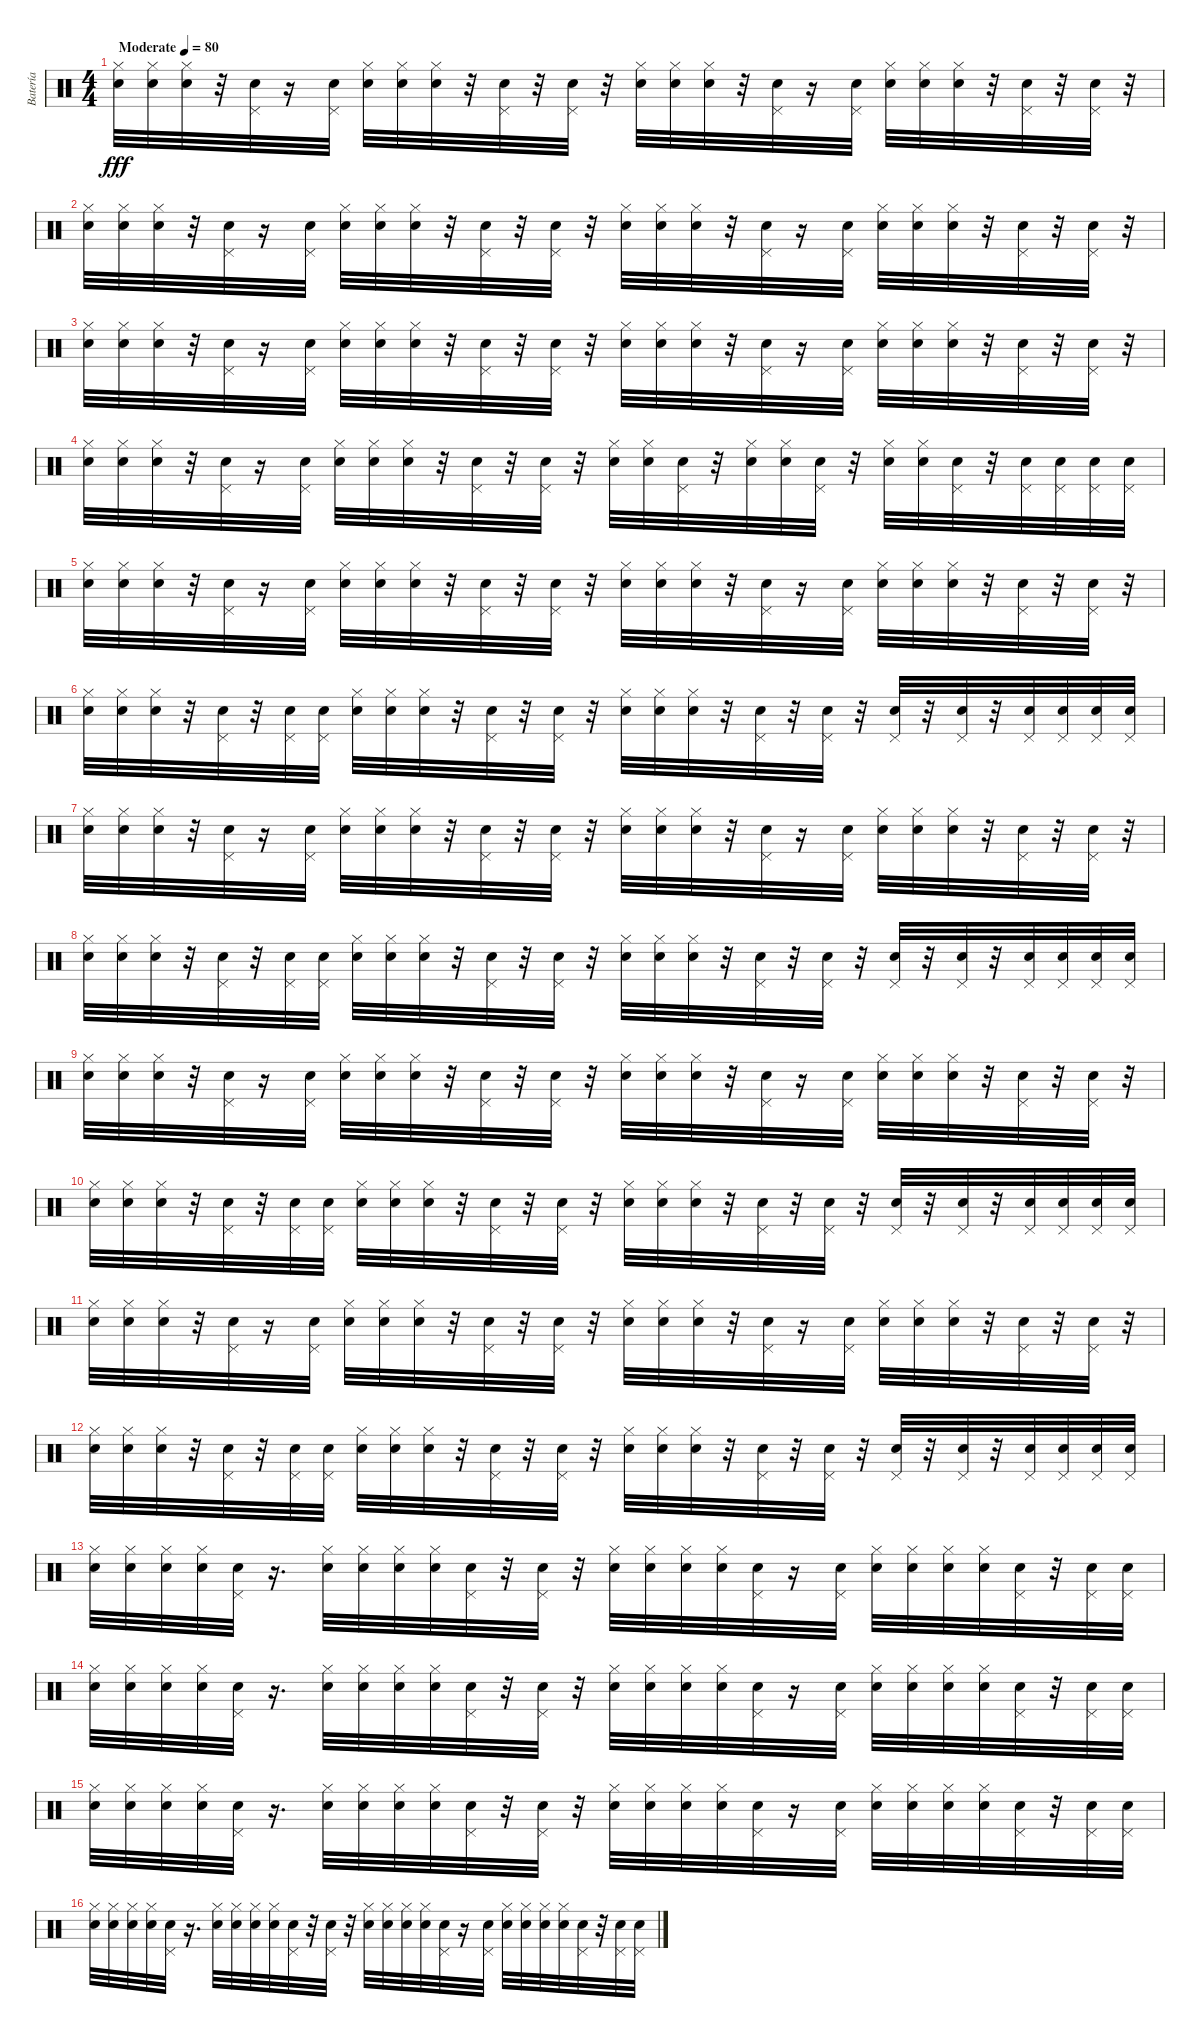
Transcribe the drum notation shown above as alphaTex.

\track ("Batería" "Batería") {instrument percussion}
\staff {score}
\articulation defaults
\ts (4 4)
\tempo (80 "Moderate")
\clef neutral
\ks c
("Hi-Hat (closed)" "Snare (hit) 2").32{dy fff} ("Hi-Hat (closed)" "Snare (hit) 2").32 ("Hi-Hat (closed)" "Snare (hit) 2").32 r.32 ("Pedal Hi-Hat (hit)" "Electric Snare (hit)").32 r.16 ("Pedal Hi-Hat (hit)" "Electric Snare (hit)").32 ("Hi-Hat (closed)" "Snare (hit) 2").32 ("Hi-Hat (closed)" "Snare (hit) 2").32 ("Hi-Hat (closed)" "Snare (hit) 2").32 r.32 ("Pedal Hi-Hat (hit)" "Electric Snare (hit)").32 r.32 ("Pedal Hi-Hat (hit)" "Electric Snare (hit)").32 r.32 ("Hi-Hat (closed)" "Snare (hit) 2").32 ("Hi-Hat (closed)" "Snare (hit) 2").32 ("Hi-Hat (closed)" "Snare (hit) 2").32 r.32 ("Pedal Hi-Hat (hit)" "Electric Snare (hit)").32 r.16 ("Pedal Hi-Hat (hit)" "Electric Snare (hit)").32 ("Hi-Hat (closed)" "Snare (hit) 2").32 ("Hi-Hat (closed)" "Snare (hit) 2").32 ("Hi-Hat (closed)" "Snare (hit) 2").32 r.32 ("Pedal Hi-Hat (hit)" "Electric Snare (hit)").32 r.32 ("Pedal Hi-Hat (hit)" "Electric Snare (hit)").32 r.32 |
("Hi-Hat (closed)" "Snare (hit) 2").32 ("Hi-Hat (closed)" "Snare (hit) 2").32 ("Hi-Hat (closed)" "Snare (hit) 2").32 r.32 ("Pedal Hi-Hat (hit)" "Electric Snare (hit)").32 r.16 ("Pedal Hi-Hat (hit)" "Electric Snare (hit)").32 ("Hi-Hat (closed)" "Snare (hit) 2").32 ("Hi-Hat (closed)" "Snare (hit) 2").32 ("Hi-Hat (closed)" "Snare (hit) 2").32 r.32 ("Pedal Hi-Hat (hit)" "Electric Snare (hit)").32 r.32 ("Pedal Hi-Hat (hit)" "Electric Snare (hit)").32 r.32 ("Hi-Hat (closed)" "Snare (hit) 2").32 ("Hi-Hat (closed)" "Snare (hit) 2").32 ("Hi-Hat (closed)" "Snare (hit) 2").32 r.32 ("Pedal Hi-Hat (hit)" "Electric Snare (hit)").32 r.16 ("Pedal Hi-Hat (hit)" "Electric Snare (hit)").32 ("Hi-Hat (closed)" "Snare (hit) 2").32 ("Hi-Hat (closed)" "Snare (hit) 2").32 ("Hi-Hat (closed)" "Snare (hit) 2").32 r.32 ("Pedal Hi-Hat (hit)" "Electric Snare (hit)").32 r.32 ("Pedal Hi-Hat (hit)" "Electric Snare (hit)").32 r.32 |
("Hi-Hat (closed)" "Snare (hit) 2").32 ("Hi-Hat (closed)" "Snare (hit) 2").32 ("Hi-Hat (closed)" "Snare (hit) 2").32 r.32 ("Pedal Hi-Hat (hit)" "Electric Snare (hit)").32 r.16 ("Pedal Hi-Hat (hit)" "Electric Snare (hit)").32 ("Hi-Hat (closed)" "Snare (hit) 2").32 ("Hi-Hat (closed)" "Snare (hit) 2").32 ("Hi-Hat (closed)" "Snare (hit) 2").32 r.32 ("Pedal Hi-Hat (hit)" "Electric Snare (hit)").32 r.32 ("Pedal Hi-Hat (hit)" "Electric Snare (hit)").32 r.32 ("Hi-Hat (closed)" "Snare (hit) 2").32 ("Hi-Hat (closed)" "Snare (hit) 2").32 ("Hi-Hat (closed)" "Snare (hit) 2").32 r.32 ("Pedal Hi-Hat (hit)" "Electric Snare (hit)").32 r.16 ("Pedal Hi-Hat (hit)" "Electric Snare (hit)").32 ("Hi-Hat (closed)" "Snare (hit) 2").32 ("Hi-Hat (closed)" "Snare (hit) 2").32 ("Hi-Hat (closed)" "Snare (hit) 2").32 r.32 ("Pedal Hi-Hat (hit)" "Electric Snare (hit)").32 r.32 ("Pedal Hi-Hat (hit)" "Electric Snare (hit)").32 r.32 |
("Hi-Hat (closed)" "Snare (hit) 2").32 ("Hi-Hat (closed)" "Snare (hit) 2").32 ("Hi-Hat (closed)" "Snare (hit) 2").32 r.32 ("Pedal Hi-Hat (hit)" "Electric Snare (hit)").32 r.16 ("Pedal Hi-Hat (hit)" "Electric Snare (hit)").32 ("Hi-Hat (closed)" "Snare (hit) 2").32 ("Hi-Hat (closed)" "Snare (hit) 2").32 ("Hi-Hat (closed)" "Snare (hit) 2").32 r.32 ("Pedal Hi-Hat (hit)" "Electric Snare (hit)").32 r.32 ("Pedal Hi-Hat (hit)" "Electric Snare (hit)").32 r.32 ("Hi-Hat (closed)" "Snare (hit) 2").32 ("Hi-Hat (closed)" "Snare (hit) 2").32 ("Pedal Hi-Hat (hit)" "Electric Snare (hit)").32 r.32 ("Hi-Hat (closed)" "Snare (hit) 2").32 ("Hi-Hat (closed)" "Snare (hit) 2").32 ("Pedal Hi-Hat (hit)" "Electric Snare (hit)").32 r.32 ("Hi-Hat (closed)" "Snare (hit) 2").32 ("Hi-Hat (closed)" "Snare (hit) 2").32 ("Pedal Hi-Hat (hit)" "Electric Snare (hit)").32 r.32 ("Pedal Hi-Hat (hit)" "Electric Snare (hit)").32 ("Pedal Hi-Hat (hit)" "Electric Snare (hit)").32 ("Pedal Hi-Hat (hit)" "Electric Snare (hit)").32 ("Pedal Hi-Hat (hit)" "Electric Snare (hit)").32 |
("Snare (hit) 2" "Hi-Hat (closed)").32 ("Snare (hit) 2" "Hi-Hat (closed)").32 ("Snare (hit) 2" "Hi-Hat (closed)").32 r.32 ("Electric Snare (hit)" "Pedal Hi-Hat (hit)").32 r.16 ("Electric Snare (hit)" "Pedal Hi-Hat (hit)").32 ("Snare (hit) 2" "Hi-Hat (closed)").32 ("Snare (hit) 2" "Hi-Hat (closed)").32 ("Snare (hit) 2" "Hi-Hat (closed)").32 r.32 ("Electric Snare (hit)" "Pedal Hi-Hat (hit)").32 r.32 ("Electric Snare (hit)" "Pedal Hi-Hat (hit)").32 r.32 ("Hi-Hat (closed)" "Snare (hit) 2").32 ("Hi-Hat (closed)" "Snare (hit) 2").32 ("Hi-Hat (closed)" "Snare (hit) 2").32 r.32 ("Pedal Hi-Hat (hit)" "Electric Snare (hit)").32 r.16 ("Pedal Hi-Hat (hit)" "Electric Snare (hit)").32 ("Hi-Hat (closed)" "Snare (hit) 2").32 ("Hi-Hat (closed)" "Snare (hit) 2").32 ("Hi-Hat (closed)" "Snare (hit) 2").32 r.32 ("Pedal Hi-Hat (hit)" "Electric Snare (hit)").32 r.32 ("Pedal Hi-Hat (hit)" "Electric Snare (hit)").32 r.32 |
("Snare (hit) 2" "Hi-Hat (closed)").32 ("Snare (hit) 2" "Hi-Hat (closed)").32 ("Snare (hit) 2" "Hi-Hat (closed)").32 r.32 ("Pedal Hi-Hat (hit)" "Electric Snare (hit)").32 r.32 ("Pedal Hi-Hat (hit)" "Electric Snare (hit)").32 ("Electric Snare (hit)" "Pedal Hi-Hat (hit)").32 ("Snare (hit) 2" "Hi-Hat (closed)").32 ("Snare (hit) 2" "Hi-Hat (closed)").32 ("Snare (hit) 2" "Hi-Hat (closed)").32 r.32 ("Electric Snare (hit)" "Pedal Hi-Hat (hit)").32 r.32 ("Pedal Hi-Hat (hit)" "Electric Snare (hit)").32 r.32 ("Snare (hit) 2" "Hi-Hat (closed)").32 ("Snare (hit) 2" "Hi-Hat (closed)").32 ("Snare (hit) 2" "Hi-Hat (closed)").32 r.32 ("Pedal Hi-Hat (hit)" "Electric Snare (hit)").32 r.32 ("Electric Snare (hit)" "Pedal Hi-Hat (hit)").32 r.32 ("Pedal Hi-Hat (hit)" "Electric Snare (hit)").32 r.32 ("Electric Snare (hit)" "Pedal Hi-Hat (hit)").32 r.32 ("Pedal Hi-Hat (hit)" "Electric Snare (hit)").32 ("Electric Snare (hit)" "Pedal Hi-Hat (hit)").32 ("Pedal Hi-Hat (hit)" "Electric Snare (hit)").32 ("Electric Snare (hit)" "Pedal Hi-Hat (hit)").32 |
("Snare (hit) 2" "Hi-Hat (closed)").32 ("Snare (hit) 2" "Hi-Hat (closed)").32 ("Snare (hit) 2" "Hi-Hat (closed)").32 r.32 ("Electric Snare (hit)" "Pedal Hi-Hat (hit)").32 r.16 ("Pedal Hi-Hat (hit)" "Electric Snare (hit)").32 ("Snare (hit) 2" "Hi-Hat (closed)").32 ("Snare (hit) 2" "Hi-Hat (closed)").32 ("Snare (hit) 2" "Hi-Hat (closed)").32 r.32 ("Pedal Hi-Hat (hit)" "Electric Snare (hit)").32 r.32 ("Electric Snare (hit)" "Pedal Hi-Hat (hit)").32 r.32 ("Snare (hit) 2" "Hi-Hat (closed)").32 ("Snare (hit) 2" "Hi-Hat (closed)").32 ("Snare (hit) 2" "Hi-Hat (closed)").32 r.32 ("Electric Snare (hit)" "Pedal Hi-Hat (hit)").32 r.16 ("Pedal Hi-Hat (hit)" "Electric Snare (hit)").32 ("Snare (hit) 2" "Hi-Hat (closed)").32 ("Snare (hit) 2" "Hi-Hat (closed)").32 ("Snare (hit) 2" "Hi-Hat (closed)").32 r.32 ("Pedal Hi-Hat (hit)" "Electric Snare (hit)").32 r.32 ("Electric Snare (hit)" "Pedal Hi-Hat (hit)").32 r.32 |
("Snare (hit) 2" "Hi-Hat (closed)").32 ("Snare (hit) 2" "Hi-Hat (closed)").32 ("Snare (hit) 2" "Hi-Hat (closed)").32 r.32 ("Pedal Hi-Hat (hit)" "Electric Snare (hit)").32 r.32 ("Electric Snare (hit)" "Pedal Hi-Hat (hit)").32 ("Electric Snare (hit)" "Pedal Hi-Hat (hit)").32 ("Snare (hit) 2" "Hi-Hat (closed)").32 ("Snare (hit) 2" "Hi-Hat (closed)").32 ("Snare (hit) 2" "Hi-Hat (closed)").32 r.32 ("Pedal Hi-Hat (hit)" "Electric Snare (hit)").32 r.32 ("Electric Snare (hit)" "Pedal Hi-Hat (hit)").32 r.32 ("Snare (hit) 2" "Hi-Hat (closed)").32 ("Snare (hit) 2" "Hi-Hat (closed)").32 ("Snare (hit) 2" "Hi-Hat (closed)").32 r.32 ("Electric Snare (hit)" "Pedal Hi-Hat (hit)").32 r.32 ("Pedal Hi-Hat (hit)" "Electric Snare (hit)").32 r.32 ("Electric Snare (hit)" "Pedal Hi-Hat (hit)").32 r.32 ("Pedal Hi-Hat (hit)" "Electric Snare (hit)").32 r.32 ("Electric Snare (hit)" "Pedal Hi-Hat (hit)").32 ("Electric Snare (hit)" "Pedal Hi-Hat (hit)").32 ("Electric Snare (hit)" "Pedal Hi-Hat (hit)").32 ("Electric Snare (hit)" "Pedal Hi-Hat (hit)").32 |
("Snare (hit) 2" "Hi-Hat (closed)").32 ("Snare (hit) 2" "Hi-Hat (closed)").32 ("Snare (hit) 2" "Hi-Hat (closed)").32 r.32 ("Electric Snare (hit)" "Pedal Hi-Hat (hit)").32 r.16 ("Pedal Hi-Hat (hit)" "Electric Snare (hit)").32 ("Snare (hit) 2" "Hi-Hat (closed)").32 ("Snare (hit) 2" "Hi-Hat (closed)").32 ("Snare (hit) 2" "Hi-Hat (closed)").32 r.32 ("Pedal Hi-Hat (hit)" "Electric Snare (hit)").32 r.32 ("Electric Snare (hit)" "Pedal Hi-Hat (hit)").32 r.32 ("Snare (hit) 2" "Hi-Hat (closed)").32 ("Snare (hit) 2" "Hi-Hat (closed)").32 ("Snare (hit) 2" "Hi-Hat (closed)").32 r.32 ("Electric Snare (hit)" "Pedal Hi-Hat (hit)").32 r.16 ("Pedal Hi-Hat (hit)" "Electric Snare (hit)").32 ("Snare (hit) 2" "Hi-Hat (closed)").32 ("Snare (hit) 2" "Hi-Hat (closed)").32 ("Snare (hit) 2" "Hi-Hat (closed)").32 r.32 ("Pedal Hi-Hat (hit)" "Electric Snare (hit)").32 r.32 ("Electric Snare (hit)" "Pedal Hi-Hat (hit)").32 r.32 |
("Snare (hit) 2" "Hi-Hat (closed)").32 ("Snare (hit) 2" "Hi-Hat (closed)").32 ("Snare (hit) 2" "Hi-Hat (closed)").32 r.32 ("Pedal Hi-Hat (hit)" "Electric Snare (hit)").32 r.32 ("Electric Snare (hit)" "Pedal Hi-Hat (hit)").32 ("Electric Snare (hit)" "Pedal Hi-Hat (hit)").32 ("Snare (hit) 2" "Hi-Hat (closed)").32 ("Snare (hit) 2" "Hi-Hat (closed)").32 ("Snare (hit) 2" "Hi-Hat (closed)").32 r.32 ("Pedal Hi-Hat (hit)" "Electric Snare (hit)").32 r.32 ("Electric Snare (hit)" "Pedal Hi-Hat (hit)").32 r.32 ("Snare (hit) 2" "Hi-Hat (closed)").32 ("Snare (hit) 2" "Hi-Hat (closed)").32 ("Snare (hit) 2" "Hi-Hat (closed)").32 r.32 ("Electric Snare (hit)" "Pedal Hi-Hat (hit)").32 r.32 ("Pedal Hi-Hat (hit)" "Electric Snare (hit)").32 r.32 ("Electric Snare (hit)" "Pedal Hi-Hat (hit)").32 r.32 ("Pedal Hi-Hat (hit)" "Electric Snare (hit)").32 r.32 ("Electric Snare (hit)" "Pedal Hi-Hat (hit)").32 ("Electric Snare (hit)" "Pedal Hi-Hat (hit)").32 ("Electric Snare (hit)" "Pedal Hi-Hat (hit)").32 ("Electric Snare (hit)" "Pedal Hi-Hat (hit)").32 |
("Snare (hit) 2" "Hi-Hat (closed)").32 ("Snare (hit) 2" "Hi-Hat (closed)").32 ("Snare (hit) 2" "Hi-Hat (closed)").32 r.32 ("Electric Snare (hit)" "Pedal Hi-Hat (hit)").32 r.16 ("Pedal Hi-Hat (hit)" "Electric Snare (hit)").32 ("Snare (hit) 2" "Hi-Hat (closed)").32 ("Snare (hit) 2" "Hi-Hat (closed)").32 ("Snare (hit) 2" "Hi-Hat (closed)").32 r.32 ("Pedal Hi-Hat (hit)" "Electric Snare (hit)").32 r.32 ("Electric Snare (hit)" "Pedal Hi-Hat (hit)").32 r.32 ("Snare (hit) 2" "Hi-Hat (closed)").32 ("Snare (hit) 2" "Hi-Hat (closed)").32 ("Snare (hit) 2" "Hi-Hat (closed)").32 r.32 ("Electric Snare (hit)" "Pedal Hi-Hat (hit)").32 r.16 ("Pedal Hi-Hat (hit)" "Electric Snare (hit)").32 ("Snare (hit) 2" "Hi-Hat (closed)").32 ("Snare (hit) 2" "Hi-Hat (closed)").32 ("Snare (hit) 2" "Hi-Hat (closed)").32 r.32 ("Pedal Hi-Hat (hit)" "Electric Snare (hit)").32 r.32 ("Electric Snare (hit)" "Pedal Hi-Hat (hit)").32 r.32 |
("Snare (hit) 2" "Hi-Hat (closed)").32 ("Snare (hit) 2" "Hi-Hat (closed)").32 ("Snare (hit) 2" "Hi-Hat (closed)").32 r.32 ("Pedal Hi-Hat (hit)" "Electric Snare (hit)").32 r.32 ("Electric Snare (hit)" "Pedal Hi-Hat (hit)").32 ("Electric Snare (hit)" "Pedal Hi-Hat (hit)").32 ("Snare (hit) 2" "Hi-Hat (closed)").32 ("Snare (hit) 2" "Hi-Hat (closed)").32 ("Snare (hit) 2" "Hi-Hat (closed)").32 r.32 ("Pedal Hi-Hat (hit)" "Electric Snare (hit)").32 r.32 ("Electric Snare (hit)" "Pedal Hi-Hat (hit)").32 r.32 ("Snare (hit) 2" "Hi-Hat (closed)").32 ("Snare (hit) 2" "Hi-Hat (closed)").32 ("Snare (hit) 2" "Hi-Hat (closed)").32 r.32 ("Electric Snare (hit)" "Pedal Hi-Hat (hit)").32 r.32 ("Pedal Hi-Hat (hit)" "Electric Snare (hit)").32 r.32 ("Electric Snare (hit)" "Pedal Hi-Hat (hit)").32 r.32 ("Pedal Hi-Hat (hit)" "Electric Snare (hit)").32 r.32 ("Electric Snare (hit)" "Pedal Hi-Hat (hit)").32 ("Electric Snare (hit)" "Pedal Hi-Hat (hit)").32 ("Electric Snare (hit)" "Pedal Hi-Hat (hit)").32 ("Electric Snare (hit)" "Pedal Hi-Hat (hit)").32 |
("Snare (hit) 2" "Hi-Hat (closed)").32 ("Snare (hit) 2" "Hi-Hat (closed)").32 ("Snare (hit) 2" "Hi-Hat (closed)").32 ("Snare (hit) 2" "Hi-Hat (closed)").32 ("Electric Snare (hit)" "Pedal Hi-Hat (hit)").32 r.16{d} ("Snare (hit) 2" "Hi-Hat (closed)").32 ("Snare (hit) 2" "Hi-Hat (closed)").32 ("Snare (hit) 2" "Hi-Hat (closed)").32 ("Snare (hit) 2" "Hi-Hat (closed)").32 ("Pedal Hi-Hat (hit)" "Electric Snare (hit)").32 r.32 ("Electric Snare (hit)" "Pedal Hi-Hat (hit)").32 r.32 ("Snare (hit) 2" "Hi-Hat (closed)").32 ("Snare (hit) 2" "Hi-Hat (closed)").32 ("Snare (hit) 2" "Hi-Hat (closed)").32 ("Snare (hit) 2" "Hi-Hat (closed)").32 ("Pedal Hi-Hat (hit)" "Electric Snare (hit)").32 r.16 ("Electric Snare (hit)" "Pedal Hi-Hat (hit)").32 ("Snare (hit) 2" "Hi-Hat (closed)").32 ("Snare (hit) 2" "Hi-Hat (closed)").32 ("Snare (hit) 2" "Hi-Hat (closed)").32 ("Snare (hit) 2" "Hi-Hat (closed)").32 ("Pedal Hi-Hat (hit)" "Electric Snare (hit)").32 r.32 ("Electric Snare (hit)" "Pedal Hi-Hat (hit)").32 ("Pedal Hi-Hat (hit)" "Electric Snare (hit)").32 |
("Snare (hit) 2" "Hi-Hat (closed)").32 ("Snare (hit) 2" "Hi-Hat (closed)").32 ("Snare (hit) 2" "Hi-Hat (closed)").32 ("Snare (hit) 2" "Hi-Hat (closed)").32 ("Electric Snare (hit)" "Pedal Hi-Hat (hit)").32 r.16{d} ("Snare (hit) 2" "Hi-Hat (closed)").32 ("Snare (hit) 2" "Hi-Hat (closed)").32 ("Snare (hit) 2" "Hi-Hat (closed)").32 ("Snare (hit) 2" "Hi-Hat (closed)").32 ("Pedal Hi-Hat (hit)" "Electric Snare (hit)").32 r.32 ("Electric Snare (hit)" "Pedal Hi-Hat (hit)").32 r.32 ("Snare (hit) 2" "Hi-Hat (closed)").32 ("Snare (hit) 2" "Hi-Hat (closed)").32 ("Snare (hit) 2" "Hi-Hat (closed)").32 ("Snare (hit) 2" "Hi-Hat (closed)").32 ("Pedal Hi-Hat (hit)" "Electric Snare (hit)").32 r.16 ("Electric Snare (hit)" "Pedal Hi-Hat (hit)").32 ("Snare (hit) 2" "Hi-Hat (closed)").32 ("Snare (hit) 2" "Hi-Hat (closed)").32 ("Snare (hit) 2" "Hi-Hat (closed)").32 ("Snare (hit) 2" "Hi-Hat (closed)").32 ("Pedal Hi-Hat (hit)" "Electric Snare (hit)").32 r.32 ("Electric Snare (hit)" "Pedal Hi-Hat (hit)").32 ("Pedal Hi-Hat (hit)" "Electric Snare (hit)").32 |
("Snare (hit) 2" "Hi-Hat (closed)").32 ("Snare (hit) 2" "Hi-Hat (closed)").32 ("Snare (hit) 2" "Hi-Hat (closed)").32 ("Snare (hit) 2" "Hi-Hat (closed)").32 ("Electric Snare (hit)" "Pedal Hi-Hat (hit)").32 r.16{d} ("Snare (hit) 2" "Hi-Hat (closed)").32 ("Snare (hit) 2" "Hi-Hat (closed)").32 ("Snare (hit) 2" "Hi-Hat (closed)").32 ("Snare (hit) 2" "Hi-Hat (closed)").32 ("Pedal Hi-Hat (hit)" "Electric Snare (hit)").32 r.32 ("Electric Snare (hit)" "Pedal Hi-Hat (hit)").32 r.32 ("Snare (hit) 2" "Hi-Hat (closed)").32 ("Snare (hit) 2" "Hi-Hat (closed)").32 ("Snare (hit) 2" "Hi-Hat (closed)").32 ("Snare (hit) 2" "Hi-Hat (closed)").32 ("Pedal Hi-Hat (hit)" "Electric Snare (hit)").32 r.16 ("Electric Snare (hit)" "Pedal Hi-Hat (hit)").32 ("Snare (hit) 2" "Hi-Hat (closed)").32 ("Snare (hit) 2" "Hi-Hat (closed)").32 ("Snare (hit) 2" "Hi-Hat (closed)").32 ("Snare (hit) 2" "Hi-Hat (closed)").32 ("Pedal Hi-Hat (hit)" "Electric Snare (hit)").32 r.32 ("Electric Snare (hit)" "Pedal Hi-Hat (hit)").32 ("Pedal Hi-Hat (hit)" "Electric Snare (hit)").32 |
("Snare (hit) 2" "Hi-Hat (closed)").32 ("Snare (hit) 2" "Hi-Hat (closed)").32 ("Snare (hit) 2" "Hi-Hat (closed)").32 ("Snare (hit) 2" "Hi-Hat (closed)").32 ("Electric Snare (hit)" "Pedal Hi-Hat (hit)").32 r.16{d} ("Snare (hit) 2" "Hi-Hat (closed)").32 ("Snare (hit) 2" "Hi-Hat (closed)").32 ("Snare (hit) 2" "Hi-Hat (closed)").32 ("Snare (hit) 2" "Hi-Hat (closed)").32 ("Pedal Hi-Hat (hit)" "Electric Snare (hit)").32 r.32 ("Electric Snare (hit)" "Pedal Hi-Hat (hit)").32 r.32 ("Snare (hit) 2" "Hi-Hat (closed)").32 ("Snare (hit) 2" "Hi-Hat (closed)").32 ("Snare (hit) 2" "Hi-Hat (closed)").32 ("Snare (hit) 2" "Hi-Hat (closed)").32 ("Pedal Hi-Hat (hit)" "Electric Snare (hit)").32 r.16 ("Electric Snare (hit)" "Pedal Hi-Hat (hit)").32 ("Snare (hit) 2" "Hi-Hat (closed)").32 ("Snare (hit) 2" "Hi-Hat (closed)").32 ("Snare (hit) 2" "Hi-Hat (closed)").32 ("Snare (hit) 2" "Hi-Hat (closed)").32 ("Pedal Hi-Hat (hit)" "Electric Snare (hit)").32 r.32 ("Electric Snare (hit)" "Pedal Hi-Hat (hit)").32 ("Pedal Hi-Hat (hit)" "Electric Snare (hit)").32
